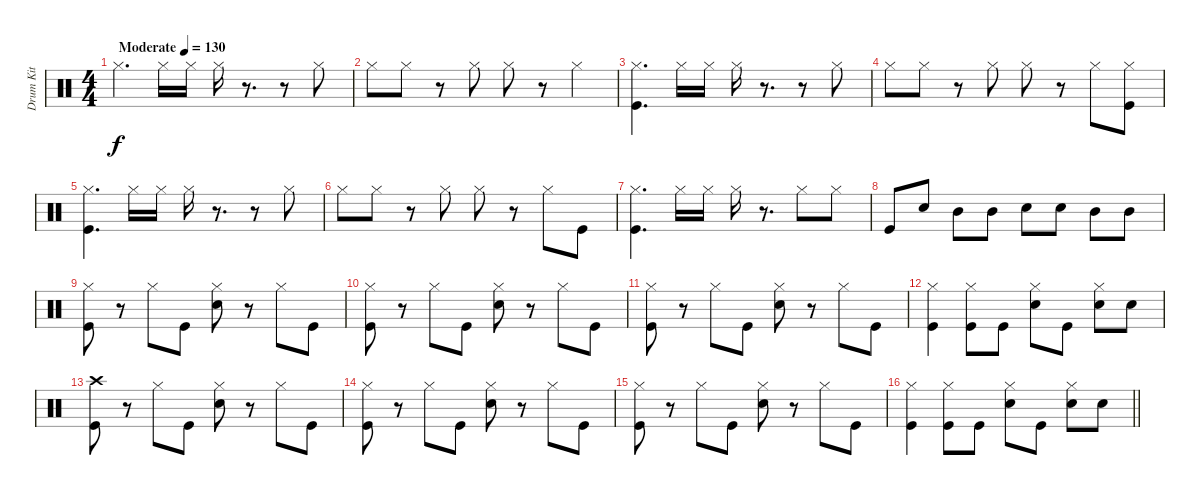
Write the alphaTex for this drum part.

\track ("Drum Kit" "Drum Kit") {instrument percussion}
\staff {score}
\articulation defaults
\ts (4 4)
\tempo (130 "Moderate")
\clef neutral
\ks c "Hi-Hat (closed)".4{d dy f} "Hi-Hat (closed)".16 "Hi-Hat (closed)".16 "Hi-Hat (closed)".16
r.8{d} r.8 "Hi-Hat (closed)".8 |
"Hi-Hat (closed)".8 "Hi-Hat (closed)".8 r.8 "Hi-Hat (closed)".8 "Hi-Hat (closed)".8 r.8 "Hi-Hat (closed)".4 |
("Hi-Hat (closed)" "Kick (hit)").4{d} "Hi-Hat (closed)".16 "Hi-Hat (closed)".16 "Hi-Hat (closed)".16 r.8{d} r.8 "Hi-Hat (closed)".8 |
"Hi-Hat (closed)".8 "Hi-Hat (closed)".8 r.8 "Hi-Hat (closed)".8 "Hi-Hat (closed)".8 r.8 "Hi-Hat (closed)".8 ("Hi-Hat (closed)" "Kick (hit)").8 |
("Hi-Hat (closed)" "Kick (hit)").4{d} "Hi-Hat (closed)".16 "Hi-Hat (closed)".16 "Hi-Hat (closed)".16 r.8{d} r.8 "Hi-Hat (closed)".8 |
"Hi-Hat (closed)".8 "Hi-Hat (closed)".8 r.8 "Hi-Hat (closed)".8 "Hi-Hat (closed)".8 r.8 "Hi-Hat (closed)".8 "Kick (hit)".8 |
("Hi-Hat (closed)" "Kick (hit)").4{d} "Hi-Hat (closed)".16 "Hi-Hat (closed)".16 "Hi-Hat (closed)".16 r.8{d} "Hi-Hat (closed)".8 "Hi-Hat (closed)".8 |
"Kick (hit)".8 "Snare (hit) 2".8 "Mid Tom (hit)".8 "Mid Tom (hit)".8 "Snare (hit) 2".8 "Snare (hit) 2".8 "Mid Tom (hit)".8 "Mid Tom (hit)".8 |
("Hi-Hat (closed)" "Kick (hit)").8 r.8 "Hi-Hat (closed)".8 "Kick (hit)".8 ("Hi-Hat (closed)" "Snare (hit) 2").8 r.8 "Hi-Hat (closed)".8 "Kick (hit)".8 |
("Hi-Hat (closed)" "Kick (hit)").8 r.8 "Hi-Hat (closed)".8 "Kick (hit)".8 ("Hi-Hat (closed)" "Snare (hit) 2").8 r.8 "Hi-Hat (closed)".8 "Kick (hit)".8 |
("Hi-Hat (closed)" "Kick (hit)").8 r.8 "Hi-Hat (closed)".8 "Kick (hit)".8 ("Hi-Hat (closed)" "Snare (hit) 2").8 r.8 "Hi-Hat (closed)".8 "Kick (hit)".8 |
("Hi-Hat (closed)" "Kick (hit)").4 ("Hi-Hat (closed)" "Kick (hit)").8 "Kick (hit)".8 ("Hi-Hat (closed)" "Snare (hit) 2").8 "Kick (hit)".8 ("Hi-Hat (closed)" "Snare (hit) 2").8 "Snare (hit) 2".8 |
("Crash high (hit)" "Kick (hit)").8 r.8 "Hi-Hat (closed)".8 "Kick (hit)".8 ("Hi-Hat (closed)" "Snare (hit) 2").8 r.8 "Hi-Hat (closed)".8 "Kick (hit)".8 |
("Hi-Hat (closed)" "Kick (hit)").8 r.8 "Hi-Hat (closed)".8 "Kick (hit)".8 ("Hi-Hat (closed)" "Snare (hit) 2").8 r.8 "Hi-Hat (closed)".8 "Kick (hit)".8 |
("Hi-Hat (closed)" "Kick (hit)").8 r.8 "Hi-Hat (closed)".8 "Kick (hit)".8 ("Hi-Hat (closed)" "Snare (hit) 2").8 r.8 "Hi-Hat (closed)".8 "Kick (hit)".8 |
\barLineRight lightlight
("Hi-Hat (closed)" "Kick (hit)").4 ("Hi-Hat (closed)" "Kick (hit)").8 "Kick (hit)".8 ("Hi-Hat (closed)" "Snare (hit) 2").8 "Kick (hit)".8 ("Hi-Hat (closed)" "Snare (hit) 2").8 "Snare (hit) 2".8
